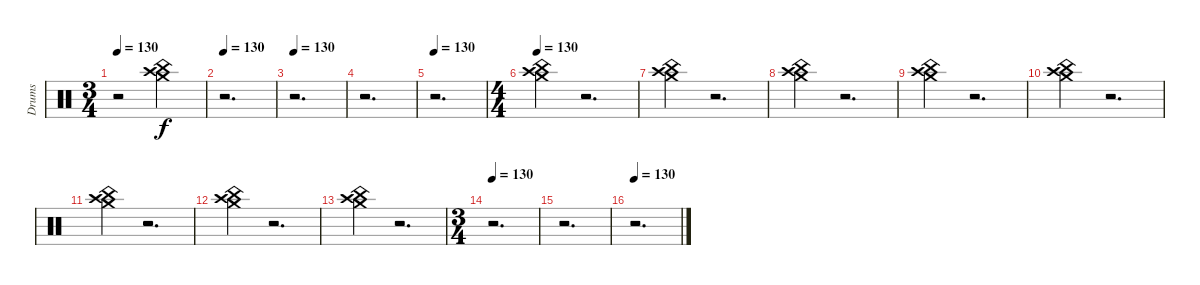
\track ("Drums" "Drums") {instrument percussion}
\staff {score}
\articulation defaults
\ts (3 4)
\tempo 130
\clef neutral
\ks c
r.2{dy f} ("Crash high (hit)" "Crash medium (hit)" "China (hit)").4 |
\tempo 130
r.2{d} |
\tempo 130
r.2{d} |
r.2{d} |
\tempo 130
r.2{d} |
\ts (4 4)
\tempo 130
("China (hit)" "Crash medium (hit)" "Crash high (hit)").4 r.2{d} |
("Crash medium (hit)" "Crash high (hit)" "China (hit)").4 r.2{d} |
("China (hit)" "Crash medium (hit)" "Crash high (hit)").4 r.2{d} |
("Crash high (hit)" "China (hit)" "Crash medium (hit)").4 r.2{d} |
("China (hit)" "Crash high (hit)" "Crash medium (hit)").4 r.2{d} |
("China (hit)" "Crash medium (hit)" "Crash high (hit)").4 r.2{d} |
("China (hit)" "Crash medium (hit)" "Crash high (hit)").4 r.2{d} |
("Crash high (hit)" "China (hit)" "Crash medium (hit)").4 r.2{d} |
\ts (3 4)
\tempo 130
r.2{d} |
r.2{d} |
\tempo 130
r.2{d}
